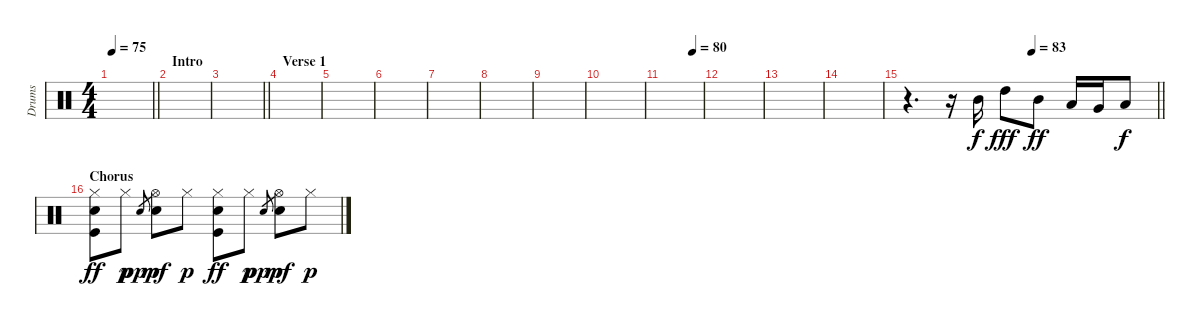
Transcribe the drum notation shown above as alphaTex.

\track ("Drums" "Drums") {instrument percussion}
\staff {score}
\articulation defaults
\ts (4 4)
\tempo 75
\clef neutral
\barLineRight lightlight
\ks c
|
\section ("" "Intro")
|
\barLineRight lightlight
|
\section ("" "Verse 1")
|
|
|
|
|
|
|
\tempo (80 0.75)
|
|
|
|
\tempo (83 0.5)
\barLineRight lightlight
r.4{d} r.16 "Mid Tom (hit)".16 "High Tom (hit)".8{dy fff} "Mid Tom (hit)".8{dy ff} "Low Tom (hit)".16 "Very Low Tom (hit)".16 "Low Floor Tom (hit)".8{dy f} |
\section ("" "Chorus")
("Hi-Hat (closed)" "Snare (hit) 2" "Kick (hit)").8{dy ff} "Hi-Hat (closed)".8{dy p} "Snare (hit) 2"{x}.8{gr dy ppp} ("Hi-Hat (open)" "Snare (hit) 2").8{dy mf} "Hi-Hat (closed)".8{dy p} ("Hi-Hat (closed)" "Snare (hit) 2" "Kick (hit)").8{dy ff} "Hi-Hat (closed)".8{dy p} "Snare (hit) 2"{x}.8{gr dy ppp} ("Hi-Hat (open)" "Snare (hit) 2").8{dy mf} "Hi-Hat (closed)".8{dy p}
